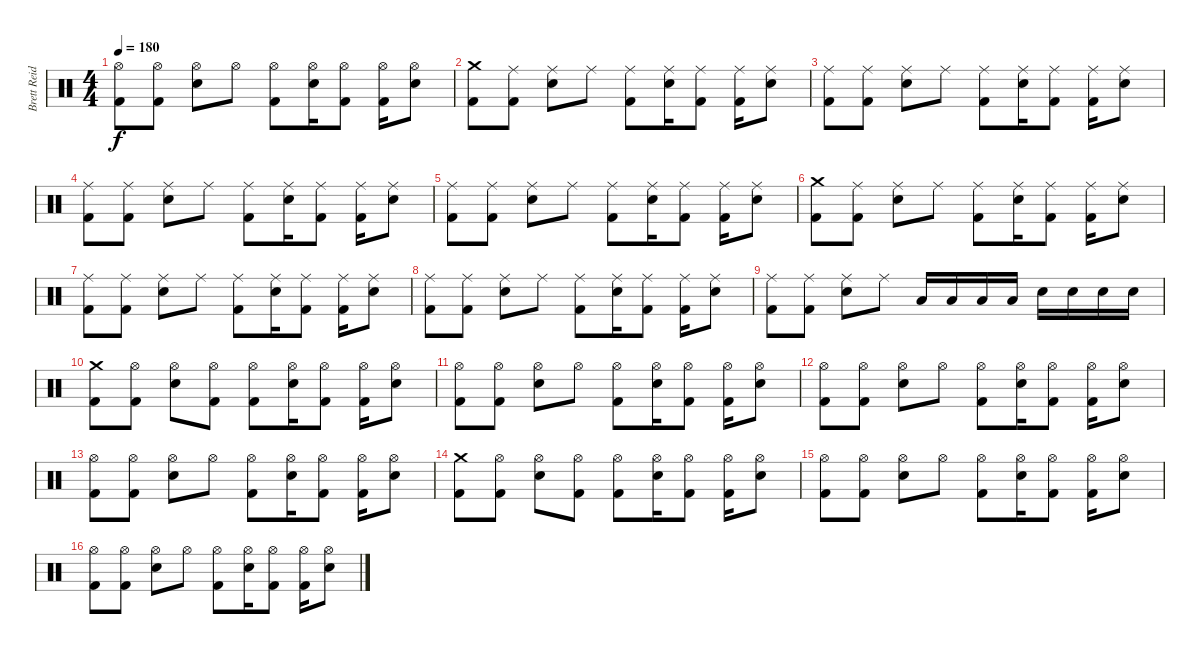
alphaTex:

\track ("Brett Reid" "Brett Reid") {instrument percussion}
\staff {score}
\articulation defaults
\ts (4 4)
\tempo 180
\clef neutral
\ks c
("Hi-Hat (open)" "Kick (hit) 2").8{dy f} ("Hi-Hat (open)" "Kick (hit) 2").8 ("Hi-Hat (open)" "Snare (hit) 2").8 "Hi-Hat (open)".8 ("Hi-Hat (open)" "Kick (hit) 2").8 ("Hi-Hat (open)" "Snare (hit) 2").16 ("Hi-Hat (open)" "Kick (hit) 2").8 ("Hi-Hat (open)" "Kick (hit) 2").16 ("Hi-Hat (open)" "Snare (hit) 2").8 |
("Crash medium (hit)" "Kick (hit) 2").8 ("Ride (middle)" "Kick (hit) 2").8 ("Ride (middle)" "Snare (hit) 2").8 "Ride (middle)".8 ("Ride (middle)" "Kick (hit) 2").8 ("Ride (middle)" "Snare (hit) 2").16 ("Ride (middle)" "Kick (hit) 2").8 ("Ride (middle)" "Kick (hit) 2").16 ("Ride (middle)" "Snare (hit) 2").8 |
("Ride (middle)" "Kick (hit) 2").8 ("Ride (middle)" "Kick (hit) 2").8 ("Ride (middle)" "Snare (hit) 2").8 "Ride (middle)".8 ("Ride (middle)" "Kick (hit) 2").8 ("Ride (middle)" "Snare (hit) 2").16 ("Ride (middle)" "Kick (hit) 2").8 ("Ride (middle)" "Kick (hit) 2").16 ("Ride (middle)" "Snare (hit) 2").8 |
("Ride (middle)" "Kick (hit) 2").8 ("Ride (middle)" "Kick (hit) 2").8 ("Ride (middle)" "Snare (hit) 2").8 "Ride (middle)".8 ("Ride (middle)" "Kick (hit) 2").8 ("Ride (middle)" "Snare (hit) 2").16 ("Ride (middle)" "Kick (hit) 2").8 ("Ride (middle)" "Kick (hit) 2").16 ("Ride (middle)" "Snare (hit) 2").8 |
("Ride (middle)" "Kick (hit) 2").8 ("Ride (middle)" "Kick (hit) 2").8 ("Ride (middle)" "Snare (hit) 2").8 "Ride (middle)".8 ("Ride (middle)" "Kick (hit) 2").8 ("Ride (middle)" "Snare (hit) 2").16 ("Ride (middle)" "Kick (hit) 2").8 ("Ride (middle)" "Kick (hit) 2").16 ("Ride (middle)" "Snare (hit) 2").8 |
("Crash medium (hit)" "Kick (hit) 2").8 ("Ride (middle)" "Kick (hit) 2").8 ("Ride (middle)" "Snare (hit) 2").8 "Ride (middle)".8 ("Ride (middle)" "Kick (hit) 2").8 ("Ride (middle)" "Snare (hit) 2").16 ("Ride (middle)" "Kick (hit) 2").8 ("Ride (middle)" "Kick (hit) 2").16 ("Ride (middle)" "Snare (hit) 2").8 |
("Ride (middle)" "Kick (hit) 2").8 ("Ride (middle)" "Kick (hit) 2").8 ("Ride (middle)" "Snare (hit) 2").8 "Ride (middle)".8 ("Ride (middle)" "Kick (hit) 2").8 ("Ride (middle)" "Snare (hit) 2").16 ("Ride (middle)" "Kick (hit) 2").8 ("Ride (middle)" "Kick (hit) 2").16 ("Ride (middle)" "Snare (hit) 2").8 |
("Ride (middle)" "Kick (hit) 2").8 ("Ride (middle)" "Kick (hit) 2").8 ("Ride (middle)" "Snare (hit) 2").8 "Ride (middle)".8 ("Ride (middle)" "Kick (hit) 2").8 ("Ride (middle)" "Snare (hit) 2").16 ("Ride (middle)" "Kick (hit) 2").8 ("Ride (middle)" "Kick (hit) 2").16 ("Ride (middle)" "Snare (hit) 2").8 |
("Ride (middle)" "Kick (hit) 2").8 ("Ride (middle)" "Kick (hit) 2").8 ("Ride (middle)" "Snare (hit) 2").8 "Ride (middle)".8 "Low Tom (hit)".16 "Low Tom (hit)".16 "Low Tom (hit)".16 "Low Tom (hit)".16 "Snare (hit) 2".16 "Snare (hit) 2".16 "Snare (hit) 2".16 "Snare (hit) 2".16 |
("Crash medium (hit)" "Kick (hit) 2").8 ("Hi-Hat (open)" "Kick (hit) 2").8 ("Hi-Hat (open)" "Snare (hit) 2").8 ("Hi-Hat (open)" "Kick (hit) 2").8 ("Hi-Hat (open)" "Kick (hit) 2").8 ("Hi-Hat (open)" "Snare (hit) 2").16 ("Hi-Hat (open)" "Kick (hit) 2").8 ("Hi-Hat (open)" "Kick (hit) 2").16 ("Hi-Hat (open)" "Snare (hit) 2").8 |
("Hi-Hat (open)" "Kick (hit) 2").8 ("Hi-Hat (open)" "Kick (hit) 2").8 ("Hi-Hat (open)" "Snare (hit) 2").8 "Hi-Hat (open)".8 ("Hi-Hat (open)" "Kick (hit) 2").8 ("Hi-Hat (open)" "Snare (hit) 2").16 ("Hi-Hat (open)" "Kick (hit) 2").8 ("Hi-Hat (open)" "Kick (hit) 2").16 ("Hi-Hat (open)" "Snare (hit) 2").8 |
("Hi-Hat (open)" "Kick (hit) 2").8 ("Hi-Hat (open)" "Kick (hit) 2").8 ("Hi-Hat (open)" "Snare (hit) 2").8 "Hi-Hat (open)".8 ("Hi-Hat (open)" "Kick (hit) 2").8 ("Hi-Hat (open)" "Snare (hit) 2").16 ("Hi-Hat (open)" "Kick (hit) 2").8 ("Hi-Hat (open)" "Kick (hit) 2").16 ("Hi-Hat (open)" "Snare (hit) 2").8 |
("Hi-Hat (open)" "Kick (hit) 2").8 ("Hi-Hat (open)" "Kick (hit) 2").8 ("Hi-Hat (open)" "Snare (hit) 2").8 "Hi-Hat (open)".8 ("Hi-Hat (open)" "Kick (hit) 2").8 ("Hi-Hat (open)" "Snare (hit) 2").16 ("Hi-Hat (open)" "Kick (hit) 2").8 ("Hi-Hat (open)" "Kick (hit) 2").16 ("Hi-Hat (open)" "Snare (hit) 2").8 |
("Crash medium (hit)" "Kick (hit) 2").8 ("Hi-Hat (open)" "Kick (hit) 2").8 ("Hi-Hat (open)" "Snare (hit) 2").8 ("Hi-Hat (open)" "Kick (hit) 2").8 ("Hi-Hat (open)" "Kick (hit) 2").8 ("Hi-Hat (open)" "Snare (hit) 2").16 ("Hi-Hat (open)" "Kick (hit) 2").8 ("Hi-Hat (open)" "Kick (hit) 2").16 ("Hi-Hat (open)" "Snare (hit) 2").8 |
("Hi-Hat (open)" "Kick (hit) 2").8 ("Hi-Hat (open)" "Kick (hit) 2").8 ("Hi-Hat (open)" "Snare (hit) 2").8 "Hi-Hat (open)".8 ("Hi-Hat (open)" "Kick (hit) 2").8 ("Hi-Hat (open)" "Snare (hit) 2").16 ("Hi-Hat (open)" "Kick (hit) 2").8 ("Hi-Hat (open)" "Kick (hit) 2").16 ("Hi-Hat (open)" "Snare (hit) 2").8 |
("Hi-Hat (open)" "Kick (hit) 2").8 ("Hi-Hat (open)" "Kick (hit) 2").8 ("Hi-Hat (open)" "Snare (hit) 2").8 "Hi-Hat (open)".8 ("Hi-Hat (open)" "Kick (hit) 2").8 ("Hi-Hat (open)" "Snare (hit) 2").16 ("Hi-Hat (open)" "Kick (hit) 2").8 ("Hi-Hat (open)" "Kick (hit) 2").16 ("Hi-Hat (open)" "Snare (hit) 2").8
